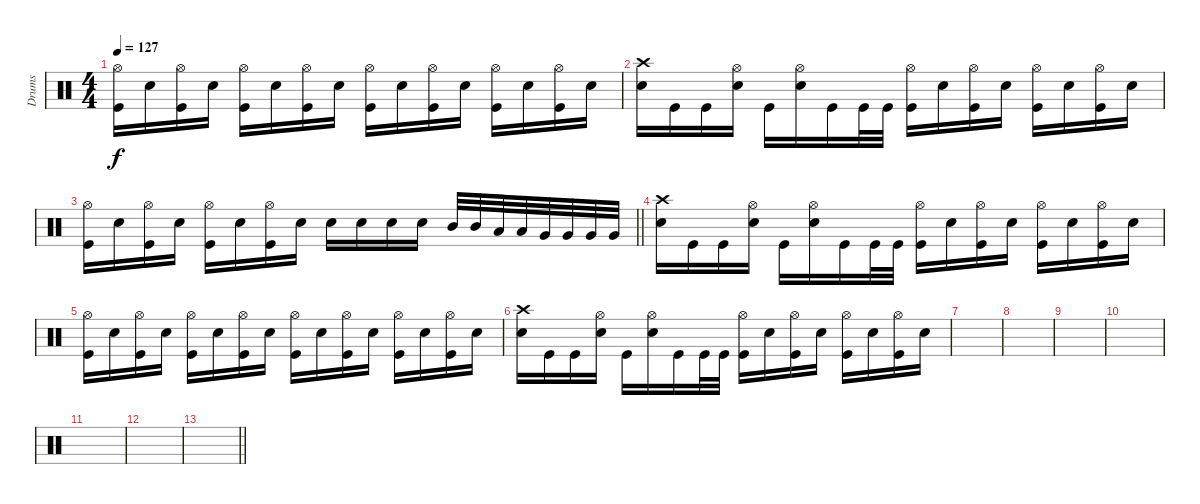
\track ("Drums" "Drums") {instrument percussion}
\staff
\articulation defaults
\ts (4 4)
\tempo 127
\clef neutral
\ks c
("Hi-Hat (open)" "Kick (hit)").16{dy f} "Electric Snare (hit)".16 ("Hi-Hat (open)" "Kick (hit)").16 "Electric Snare (hit)".16 ("Hi-Hat (open)" "Kick (hit)").16 "Electric Snare (hit)".16 ("Hi-Hat (open)" "Kick (hit)").16 "Electric Snare (hit)".16 ("Hi-Hat (open)" "Kick (hit)").16 "Electric Snare (hit)".16 ("Hi-Hat (open)" "Kick (hit)").16 "Electric Snare (hit)".16 ("Hi-Hat (open)" "Kick (hit)").16 "Electric Snare (hit)".16 ("Hi-Hat (open)" "Kick (hit)").16 "Electric Snare (hit)".16 |
("Crash high (hit)" "Electric Snare (hit)").16 "Kick (hit)".16 "Kick (hit)".16 ("Hi-Hat (open)" "Electric Snare (hit)").16 "Kick (hit)".16 ("Hi-Hat (open)" "Electric Snare (hit)").16 "Kick (hit)".16 "Kick (hit)".32 "Kick (hit)".32 ("Hi-Hat (open)" "Kick (hit)").16 "Electric Snare (hit)".16 ("Hi-Hat (open)" "Kick (hit)").16 "Electric Snare (hit)".16 ("Hi-Hat (open)" "Kick (hit)").16 "Electric Snare (hit)".16 ("Hi-Hat (open)" "Kick (hit)").16 "Electric Snare (hit)".16 |
\barLineRight lightlight
("Hi-Hat (open)" "Kick (hit)").16 "Electric Snare (hit)".16 ("Hi-Hat (open)" "Kick (hit)").16 "Electric Snare (hit)".16 ("Hi-Hat (open)" "Kick (hit)").16 "Electric Snare (hit)".16 ("Hi-Hat (open)" "Kick (hit)").16 "Electric Snare (hit)".16 "Electric Snare (hit)".16 "Electric Snare (hit)".16 "Electric Snare (hit)".16 "Electric Snare (hit)".16 "Mid Tom (hit)".32 "Mid Tom (hit)".32 "Low Tom (hit)".32 "Low Tom (hit)".32 "Very Low Tom (hit)".32 "Very Low Tom (hit)".32 "Very Low Tom (hit)".32 "Very Low Tom (hit)".32 |
("Crash high (hit)" "Electric Snare (hit)").16 "Kick (hit)".16 "Kick (hit)".16 ("Hi-Hat (open)" "Electric Snare (hit)").16 "Kick (hit)".16 ("Hi-Hat (open)" "Electric Snare (hit)").16 "Kick (hit)".16 "Kick (hit)".32 "Kick (hit)".32 ("Hi-Hat (open)" "Kick (hit)").16 "Electric Snare (hit)".16 ("Hi-Hat (open)" "Kick (hit)").16 "Electric Snare (hit)".16 ("Hi-Hat (open)" "Kick (hit)").16 "Electric Snare (hit)".16 ("Hi-Hat (open)" "Kick (hit)").16 "Electric Snare (hit)".16 |
("Hi-Hat (open)" "Kick (hit)").16 "Electric Snare (hit)".16 ("Hi-Hat (open)" "Kick (hit)").16 "Electric Snare (hit)".16 ("Hi-Hat (open)" "Kick (hit)").16 "Electric Snare (hit)".16 ("Hi-Hat (open)" "Kick (hit)").16 "Electric Snare (hit)".16 ("Hi-Hat (open)" "Kick (hit)").16 "Electric Snare (hit)".16 ("Hi-Hat (open)" "Kick (hit)").16 "Electric Snare (hit)".16 ("Hi-Hat (open)" "Kick (hit)").16 "Electric Snare (hit)".16 ("Hi-Hat (open)" "Kick (hit)").16 "Electric Snare (hit)".16 |
("Crash high (hit)" "Electric Snare (hit)").16 "Kick (hit)".16 "Kick (hit)".16 ("Hi-Hat (open)" "Electric Snare (hit)").16 "Kick (hit)".16 ("Hi-Hat (open)" "Electric Snare (hit)").16 "Kick (hit)".16 "Kick (hit)".32 "Kick (hit)".32 ("Hi-Hat (open)" "Kick (hit)").16 "Electric Snare (hit)".16 ("Hi-Hat (open)" "Kick (hit)").16 "Electric Snare (hit)".16 ("Hi-Hat (open)" "Kick (hit)").16 "Electric Snare (hit)".16 ("Hi-Hat (open)" "Kick (hit)").16 "Electric Snare (hit)".16 |
|
|
|
|
|
|
\barLineRight lightlight
